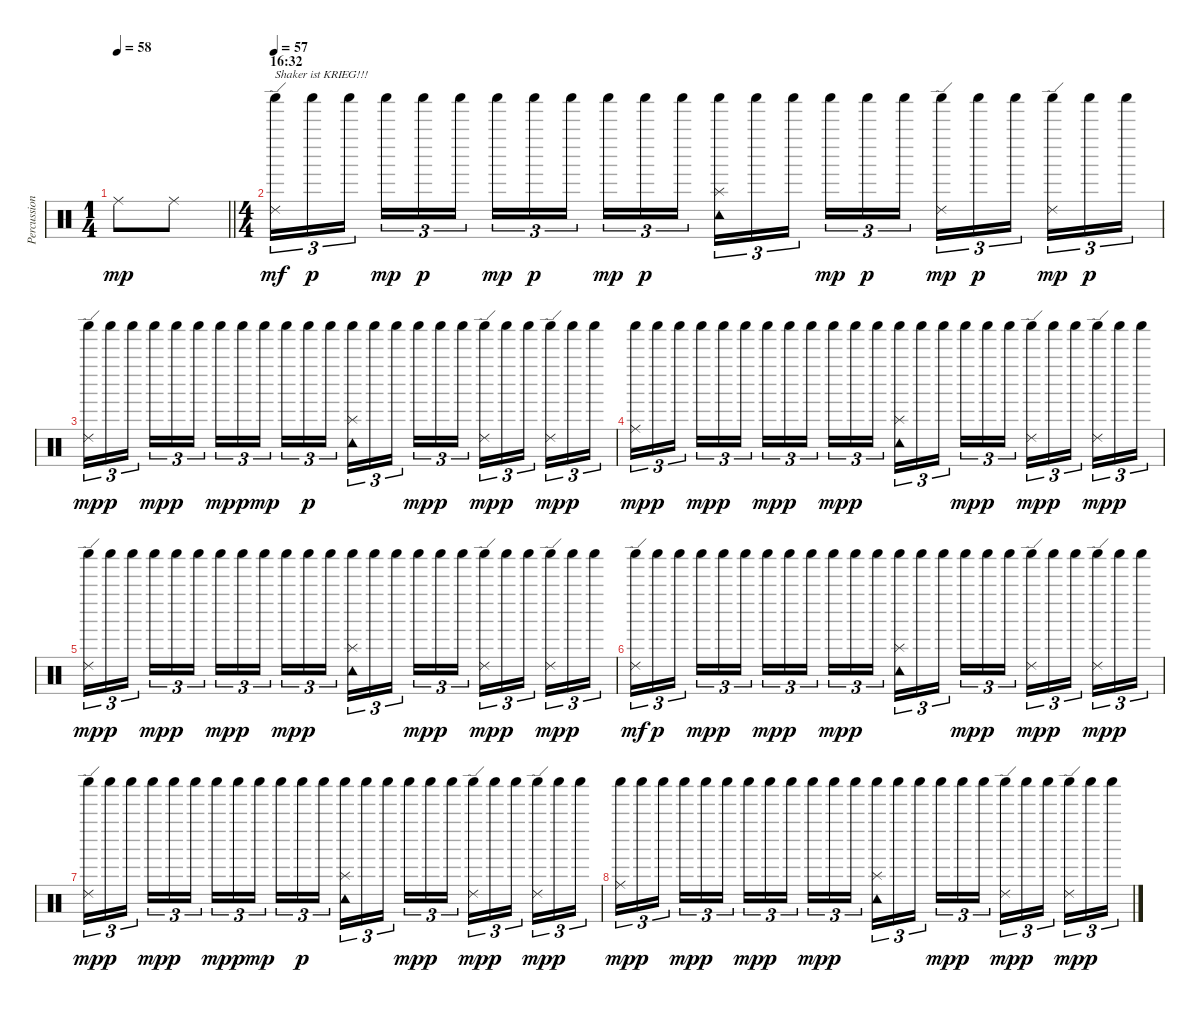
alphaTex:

\track ("Percussions" "Percussion") {instrument percussion}
\staff {score}
\articulation defaults
\ts (1 4)
\tempo 58
\clef neutral
\barLineRight lightlight
\ks c "Ride (middle)".8{dy mp volume 10} "Ride (middle)".8
|
\ts (4 4)
\section ("" "16:32")
\tempo 57
("Shaker (hit)" "Ride (edge) 2").16{tu (3 2) txt "Shaker ist KRIEG!!!" dy mf} "Shaker (hit)".16{tu (3 2) dy p} "Shaker (hit)".16{tu (3 2) beam splitsecondary} "Shaker (hit)".16{tu (3 2) dy mp} "Shaker (hit)".16{tu (3 2) dy p} "Shaker (hit)".16{tu (3 2)} "Shaker (hit)".16{tu (3 2) dy mp} "Shaker (hit)".16{tu (3 2) dy p} "Shaker (hit)".16{tu (3 2) beam splitsecondary} "Shaker (hit)".16{tu (3 2) dy mp} "Shaker (hit)".16{tu (3 2) dy p} "Shaker (hit)".16{tu (3 2)} ("Shaker (hit)" "Tambourine (hit)" "Splash (hit)").16{tu (3 2)} "Shaker (hit)".16{tu (3 2)} "Shaker (hit)".16{tu (3 2) beam splitsecondary} "Shaker (hit)".16{tu (3 2) dy mp} "Shaker (hit)".16{tu (3 2) dy p} "Shaker (hit)".16{tu (3 2)} ("Ride (edge) 2" "Shaker (hit)").16{tu (3 2) dy mp} "Shaker (hit)".16{tu (3 2) dy p} "Shaker (hit)".16{tu (3 2) beam splitsecondary} ("Ride (edge) 2" "Shaker (hit)").16{tu (3 2) dy mp} "Shaker (hit)".16{tu (3 2) dy p} "Shaker (hit)".16{tu (3 2)} |
("Ride (edge) 2" "Shaker (hit)").16{tu (3 2) dy mp} "Shaker (hit)".16{tu (3 2) dy p} "Shaker (hit)".16{tu (3 2) beam splitsecondary} "Shaker (hit)".16{tu (3 2) dy mp} "Shaker (hit)".16{tu (3 2) dy p} "Shaker (hit)".16{tu (3 2)} "Shaker (hit)".16{tu (3 2) dy mp} "Shaker (hit)".16{tu (3 2) dy p} "Shaker (hit)".16{tu (3 2) dy mp beam splitsecondary} "Shaker (hit)".16{tu (3 2)} "Shaker (hit)".16{tu (3 2) dy p} "Shaker (hit)".16{tu (3 2)} ("Shaker (hit)" "Tambourine (hit)" "Splash (hit)").16{tu (3 2)} "Shaker (hit)".16{tu (3 2)} "Shaker (hit)".16{tu (3 2) beam splitsecondary} "Shaker (hit)".16{tu (3 2) dy mp} "Shaker (hit)".16{tu (3 2) dy p} "Shaker (hit)".16{tu (3 2)} ("Ride (edge) 2" "Shaker (hit)").16{tu (3 2) dy mp} "Shaker (hit)".16{tu (3 2) dy p} "Shaker (hit)".16{tu (3 2) beam splitsecondary} ("Ride (edge) 2" "Shaker (hit)").16{tu (3 2) dy mp} "Shaker (hit)".16{tu (3 2) dy p} "Shaker (hit)".16{tu (3 2)} |
("Ride (middle)" "Shaker (hit)").16{tu (3 2) dy mp} "Shaker (hit)".16{tu (3 2) dy p} "Shaker (hit)".16{tu (3 2) beam splitsecondary} "Shaker (hit)".16{tu (3 2) dy mp} "Shaker (hit)".16{tu (3 2) dy p} "Shaker (hit)".16{tu (3 2)} "Shaker (hit)".16{tu (3 2) dy mp} "Shaker (hit)".16{tu (3 2) dy p} "Shaker (hit)".16{tu (3 2) beam splitsecondary} "Shaker (hit)".16{tu (3 2) dy mp} "Shaker (hit)".16{tu (3 2) dy p} "Shaker (hit)".16{tu (3 2)} ("Shaker (hit)" "Tambourine (hit)" "Splash (hit)").16{tu (3 2)} "Shaker (hit)".16{tu (3 2)} "Shaker (hit)".16{tu (3 2) beam splitsecondary} "Shaker (hit)".16{tu (3 2) dy mp} "Shaker (hit)".16{tu (3 2) dy p} "Shaker (hit)".16{tu (3 2)} ("Ride (edge) 2" "Shaker (hit)").16{tu (3 2) dy mp} "Shaker (hit)".16{tu (3 2) dy p} "Shaker (hit)".16{tu (3 2) beam splitsecondary} ("Ride (edge) 2" "Shaker (hit)").16{tu (3 2) dy mp} "Shaker (hit)".16{tu (3 2) dy p} "Shaker (hit)".16{tu (3 2)} |
("Ride (edge) 2" "Shaker (hit)").16{tu (3 2) dy mp} "Shaker (hit)".16{tu (3 2) dy p} "Shaker (hit)".16{tu (3 2) beam splitsecondary} "Shaker (hit)".16{tu (3 2) dy mp} "Shaker (hit)".16{tu (3 2) dy p} "Shaker (hit)".16{tu (3 2)} "Shaker (hit)".16{tu (3 2) dy mp} "Shaker (hit)".16{tu (3 2) dy p} "Shaker (hit)".16{tu (3 2) beam splitsecondary} "Shaker (hit)".16{tu (3 2) dy mp} "Shaker (hit)".16{tu (3 2) dy p} "Shaker (hit)".16{tu (3 2)} ("Shaker (hit)" "Tambourine (hit)" "Splash (hit)").16{tu (3 2)} "Shaker (hit)".16{tu (3 2)} "Shaker (hit)".16{tu (3 2) beam splitsecondary} "Shaker (hit)".16{tu (3 2) dy mp} "Shaker (hit)".16{tu (3 2) dy p} "Shaker (hit)".16{tu (3 2)} ("Ride (edge) 2" "Shaker (hit)").16{tu (3 2) dy mp} "Shaker (hit)".16{tu (3 2) dy p} "Shaker (hit)".16{tu (3 2) beam splitsecondary} ("Ride (edge) 2" "Shaker (hit)").16{tu (3 2) dy mp} "Shaker (hit)".16{tu (3 2) dy p} "Shaker (hit)".16{tu (3 2)} |
("Shaker (hit)" "Ride (edge) 2").16{tu (3 2) dy mf} "Shaker (hit)".16{tu (3 2) dy p} "Shaker (hit)".16{tu (3 2) beam splitsecondary} "Shaker (hit)".16{tu (3 2) dy mp} "Shaker (hit)".16{tu (3 2) dy p} "Shaker (hit)".16{tu (3 2)} "Shaker (hit)".16{tu (3 2) dy mp} "Shaker (hit)".16{tu (3 2) dy p} "Shaker (hit)".16{tu (3 2) beam splitsecondary} "Shaker (hit)".16{tu (3 2) dy mp} "Shaker (hit)".16{tu (3 2) dy p} "Shaker (hit)".16{tu (3 2)} ("Shaker (hit)" "Tambourine (hit)" "Splash (hit)").16{tu (3 2)} "Shaker (hit)".16{tu (3 2)} "Shaker (hit)".16{tu (3 2) beam splitsecondary} "Shaker (hit)".16{tu (3 2) dy mp} "Shaker (hit)".16{tu (3 2) dy p} "Shaker (hit)".16{tu (3 2)} ("Ride (edge) 2" "Shaker (hit)").16{tu (3 2) dy mp} "Shaker (hit)".16{tu (3 2) dy p} "Shaker (hit)".16{tu (3 2) beam splitsecondary} ("Ride (edge) 2" "Shaker (hit)").16{tu (3 2) dy mp} "Shaker (hit)".16{tu (3 2) dy p} "Shaker (hit)".16{tu (3 2)} |
("Ride (edge) 2" "Shaker (hit)").16{tu (3 2) dy mp} "Shaker (hit)".16{tu (3 2) dy p} "Shaker (hit)".16{tu (3 2) beam splitsecondary} "Shaker (hit)".16{tu (3 2) dy mp} "Shaker (hit)".16{tu (3 2) dy p} "Shaker (hit)".16{tu (3 2)} "Shaker (hit)".16{tu (3 2) dy mp} "Shaker (hit)".16{tu (3 2) dy p} "Shaker (hit)".16{tu (3 2) dy mp beam splitsecondary} "Shaker (hit)".16{tu (3 2)} "Shaker (hit)".16{tu (3 2) dy p} "Shaker (hit)".16{tu (3 2)} ("Shaker (hit)" "Tambourine (hit)" "Splash (hit)").16{tu (3 2)} "Shaker (hit)".16{tu (3 2)} "Shaker (hit)".16{tu (3 2) beam splitsecondary} "Shaker (hit)".16{tu (3 2) dy mp} "Shaker (hit)".16{tu (3 2) dy p} "Shaker (hit)".16{tu (3 2)} ("Ride (edge) 2" "Shaker (hit)").16{tu (3 2) dy mp} "Shaker (hit)".16{tu (3 2) dy p} "Shaker (hit)".16{tu (3 2) beam splitsecondary} ("Ride (edge) 2" "Shaker (hit)").16{tu (3 2) dy mp} "Shaker (hit)".16{tu (3 2) dy p} "Shaker (hit)".16{tu (3 2)} |
("Ride (middle)" "Shaker (hit)").16{tu (3 2) dy mp} "Shaker (hit)".16{tu (3 2) dy p} "Shaker (hit)".16{tu (3 2) beam splitsecondary} "Shaker (hit)".16{tu (3 2) dy mp} "Shaker (hit)".16{tu (3 2) dy p} "Shaker (hit)".16{tu (3 2)} "Shaker (hit)".16{tu (3 2) dy mp} "Shaker (hit)".16{tu (3 2) dy p} "Shaker (hit)".16{tu (3 2) beam splitsecondary} "Shaker (hit)".16{tu (3 2) dy mp} "Shaker (hit)".16{tu (3 2) dy p} "Shaker (hit)".16{tu (3 2)} ("Shaker (hit)" "Tambourine (hit)" "Splash (hit)").16{tu (3 2)} "Shaker (hit)".16{tu (3 2)} "Shaker (hit)".16{tu (3 2) beam splitsecondary} "Shaker (hit)".16{tu (3 2) dy mp} "Shaker (hit)".16{tu (3 2) dy p} "Shaker (hit)".16{tu (3 2)} ("Ride (edge) 2" "Shaker (hit)").16{tu (3 2) dy mp} "Shaker (hit)".16{tu (3 2) dy p} "Shaker (hit)".16{tu (3 2) beam splitsecondary} ("Ride (edge) 2" "Shaker (hit)").16{tu (3 2) dy mp} "Shaker (hit)".16{tu (3 2) dy p} "Shaker (hit)".16{tu (3 2)}
